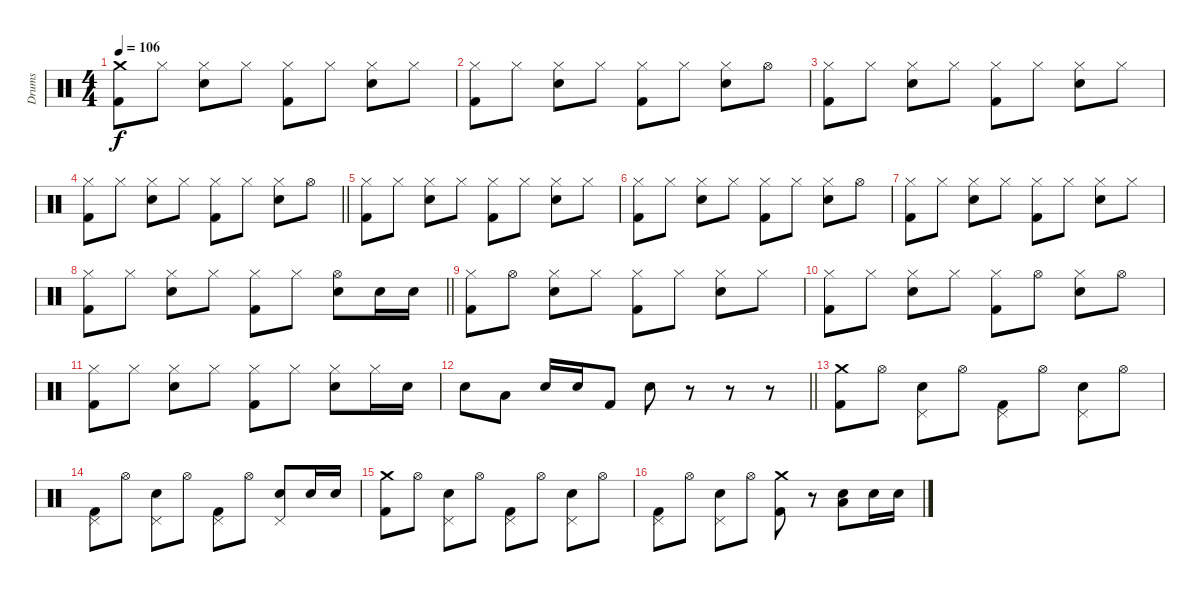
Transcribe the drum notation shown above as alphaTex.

\track ("Drums" "Drums") {instrument percussion}
\staff {score}
\articulation defaults
\ts (4 4)
\tempo 106
\clef neutral
\ks c
("Crash medium (hit)" "Kick (hit) 2").8{dy f} "Hi-Hat (closed)".8 ("Hi-Hat (closed)" "Electric Snare (hit)").8 "Hi-Hat (closed)".8 ("Hi-Hat (closed)" "Kick (hit) 2").8 "Hi-Hat (closed)".8 ("Hi-Hat (closed)" "Electric Snare (hit)").8 "Hi-Hat (closed)".8 |
("Hi-Hat (closed)" "Kick (hit) 2").8 "Hi-Hat (closed)".8 ("Hi-Hat (closed)" "Electric Snare (hit)").8 "Hi-Hat (closed)".8 ("Hi-Hat (closed)" "Kick (hit) 2").8 "Hi-Hat (closed)".8 ("Hi-Hat (closed)" "Electric Snare (hit)").8 "Hi-Hat (open)".8 |
("Hi-Hat (closed)" "Kick (hit) 2").8 "Hi-Hat (closed)".8 ("Hi-Hat (closed)" "Electric Snare (hit)").8 "Hi-Hat (closed)".8 ("Hi-Hat (closed)" "Kick (hit) 2").8 "Hi-Hat (closed)".8 ("Hi-Hat (closed)" "Electric Snare (hit)").8 "Hi-Hat (closed)".8 |
\barLineRight lightlight
("Hi-Hat (closed)" "Kick (hit) 2").8 "Hi-Hat (closed)".8 ("Hi-Hat (closed)" "Electric Snare (hit)").8 "Hi-Hat (closed)".8 ("Hi-Hat (closed)" "Kick (hit) 2").8 "Hi-Hat (closed)".8 ("Hi-Hat (closed)" "Electric Snare (hit)").8 "Hi-Hat (open)".8 |
("Hi-Hat (closed)" "Kick (hit) 2").8 "Hi-Hat (closed)".8 ("Hi-Hat (closed)" "Electric Snare (hit)").8 "Hi-Hat (closed)".8 ("Hi-Hat (closed)" "Kick (hit) 2").8 "Hi-Hat (closed)".8 ("Hi-Hat (closed)" "Electric Snare (hit)").8 "Hi-Hat (closed)".8 |
("Hi-Hat (closed)" "Kick (hit) 2").8 "Hi-Hat (closed)".8 ("Hi-Hat (closed)" "Electric Snare (hit)").8 "Hi-Hat (closed)".8 ("Hi-Hat (closed)" "Kick (hit) 2").8 "Hi-Hat (closed)".8 ("Hi-Hat (closed)" "Electric Snare (hit)").8 "Hi-Hat (open)".8 |
("Hi-Hat (closed)" "Kick (hit) 2").8 "Hi-Hat (closed)".8 ("Hi-Hat (closed)" "Electric Snare (hit)").8 "Hi-Hat (closed)".8 ("Hi-Hat (closed)" "Kick (hit) 2").8 "Hi-Hat (closed)".8 ("Hi-Hat (closed)" "Electric Snare (hit)").8 "Hi-Hat (closed)".8 |
\barLineRight lightlight
("Hi-Hat (closed)" "Kick (hit) 2").8 "Hi-Hat (closed)".8 ("Hi-Hat (closed)" "Electric Snare (hit)").8 "Hi-Hat (closed)".8 ("Hi-Hat (closed)" "Kick (hit) 2").8 "Hi-Hat (closed)".8 ("Hi-Hat (open)" "Electric Snare (hit)").8 "Electric Snare (hit)".16 "Electric Snare (hit)".16 |
("Hi-Hat (closed)" "Kick (hit) 2").8 "Hi-Hat (open)".8 ("Hi-Hat (closed)" "Electric Snare (hit)").8 "Hi-Hat (closed)".8 ("Hi-Hat (closed)" "Kick (hit) 2").8 "Hi-Hat (closed)".8 ("Hi-Hat (closed)" "Electric Snare (hit)").8 "Hi-Hat (closed)".8 |
("Hi-Hat (closed)" "Kick (hit) 2").8 "Hi-Hat (closed)".8 ("Hi-Hat (closed)" "Electric Snare (hit)").8 "Hi-Hat (closed)".8 ("Hi-Hat (closed)" "Kick (hit) 2").8 "Hi-Hat (open)".8 ("Hi-Hat (closed)" "Electric Snare (hit)").8 "Hi-Hat (open)".8 |
("Hi-Hat (closed)" "Kick (hit) 2").8 "Hi-Hat (closed)".8 ("Hi-Hat (closed)" "Electric Snare (hit)").8 "Hi-Hat (closed)".8 ("Hi-Hat (closed)" "Kick (hit) 2").8 "Hi-Hat (closed)".8 ("Hi-Hat (closed)" "Electric Snare (hit)").8 "Hi-Hat (closed)".16 "Electric Snare (hit)".16 |
\barLineRight lightlight "Electric Snare (hit)".8 "Low Tom (hit)".8 "Electric Snare (hit)".16 "Electric Snare (hit)".16 "Kick (hit) 2".8 "Electric Snare (hit)".8
r.8 r.8 r.8 |
("Crash medium (hit)" "Kick (hit) 2").8 "Hi-Hat (open)".8 ("Pedal Hi-Hat (hit)" "Electric Snare (hit)").8 "Hi-Hat (open)".8 ("Pedal Hi-Hat (hit)" "Kick (hit) 2").8 "Hi-Hat (open)".8 ("Pedal Hi-Hat (hit)" "Electric Snare (hit)").8 "Hi-Hat (open)".8 |
("Pedal Hi-Hat (hit)" "Kick (hit) 2").8 "Hi-Hat (open)".8 ("Pedal Hi-Hat (hit)" "Electric Snare (hit)").8 "Hi-Hat (open)".8 ("Pedal Hi-Hat (hit)" "Kick (hit) 2").8 "Hi-Hat (open)".8 ("Pedal Hi-Hat (hit)" "Electric Snare (hit)").8 "Electric Snare (hit)".16 "Electric Snare (hit)".16 |
("Crash medium (hit)" "Kick (hit) 2").8 "Hi-Hat (open)".8 ("Pedal Hi-Hat (hit)" "Electric Snare (hit)").8 "Hi-Hat (open)".8 ("Pedal Hi-Hat (hit)" "Kick (hit) 2").8 "Hi-Hat (open)".8 ("Pedal Hi-Hat (hit)" "Electric Snare (hit)").8 "Hi-Hat (open)".8 |
("Pedal Hi-Hat (hit)" "Kick (hit) 2").8 "Hi-Hat (open)".8 ("Pedal Hi-Hat (hit)" "Electric Snare (hit)").8 "Hi-Hat (open)".8 ("Crash medium (hit)" "Kick (hit) 2").8 r.8 ("Electric Snare (hit)" "Low Floor Tom (hit)").8 "Electric Snare (hit)".16 "Electric Snare (hit)".16
